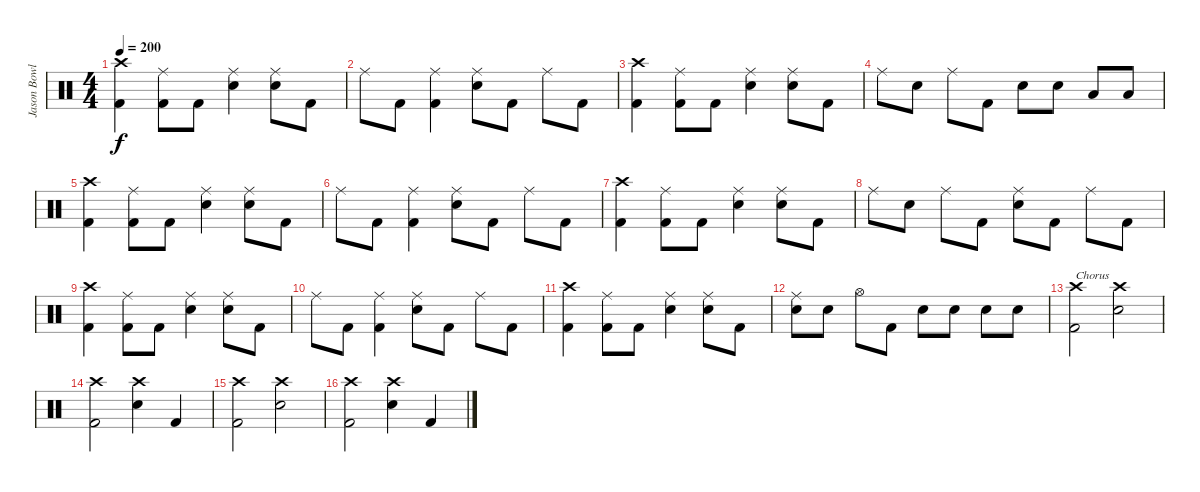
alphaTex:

\track ("Jason Bowld" "Jason Bowl") {instrument percussion}
\staff {score}
\articulation defaults
\ts (4 4)
\tempo 200
\clef neutral
\ks c
("Crash high (hit)" "Kick (hit) 2").4{dy f} ("Ride (middle)" "Kick (hit) 2").8 "Kick (hit) 2".8 ("Ride (middle)" "Snare (hit) 2").4 ("Ride (middle)" "Snare (hit) 2").8 "Kick (hit) 2".8 |
"Ride (middle)".8 "Kick (hit) 2".8 ("Ride (middle)" "Kick (hit) 2").4 ("Ride (middle)" "Snare (hit) 2").8 "Kick (hit) 2".8 "Ride (middle)".8 "Kick (hit) 2".8 |
("Crash high (hit)" "Kick (hit) 2").4 ("Ride (middle)" "Kick (hit) 2").8 "Kick (hit) 2".8 ("Ride (middle)" "Snare (hit) 2").4 ("Ride (middle)" "Snare (hit) 2").8 "Kick (hit) 2".8 |
"Ride (middle)".8 "Snare (hit) 2".8 "Ride (middle)".8 "Kick (hit) 2".8 "Snare (hit) 2".8 "Snare (hit) 2".8 "Low Tom (hit)".8 "Low Tom (hit)".8 |
("Crash high (hit)" "Kick (hit) 2").4 ("Ride (middle)" "Kick (hit) 2").8 "Kick (hit) 2".8 ("Ride (middle)" "Snare (hit) 2").4 ("Ride (middle)" "Snare (hit) 2").8 "Kick (hit) 2".8 |
"Ride (middle)".8 "Kick (hit) 2".8 ("Ride (middle)" "Kick (hit) 2").4 ("Ride (middle)" "Snare (hit) 2").8 "Kick (hit) 2".8 "Ride (middle)".8 "Kick (hit) 2".8 |
("Crash high (hit)" "Kick (hit) 2").4 ("Ride (middle)" "Kick (hit) 2").8 "Kick (hit) 2".8 ("Ride (middle)" "Snare (hit) 2").4 ("Ride (middle)" "Snare (hit) 2").8 "Kick (hit) 2".8 |
"Ride (middle)".8 "Snare (hit) 2".8 "Ride (middle)".8 "Kick (hit) 2".8 ("Ride (middle)" "Snare (hit) 2").8 "Kick (hit) 2".8 "Ride (middle)".8 "Kick (hit) 2".8 |
("Crash high (hit)" "Kick (hit) 2").4 ("Ride (middle)" "Kick (hit) 2").8 "Kick (hit) 2".8 ("Ride (middle)" "Snare (hit) 2").4 ("Ride (middle)" "Snare (hit) 2").8 "Kick (hit) 2".8 |
"Ride (middle)".8 "Kick (hit) 2".8 ("Ride (middle)" "Kick (hit) 2").4 ("Ride (middle)" "Snare (hit) 2").8 "Kick (hit) 2".8 "Ride (middle)".8 "Kick (hit) 2".8 |
("Crash high (hit)" "Kick (hit) 2").4 ("Ride (middle)" "Kick (hit) 2").8 "Kick (hit) 2".8 ("Ride (middle)" "Snare (hit) 2").4 ("Ride (middle)" "Snare (hit) 2").8 "Kick (hit) 2".8 |
("Ride (middle)" "Snare (hit) 2").8 "Snare (hit) 2".8 "Hi-Hat (open)".8 "Kick (hit) 2".8 "Snare (hit) 2".8 "Snare (hit) 2".8 "Snare (hit) 2".8 "Snare (hit) 2".8 |
("Crash high (hit)" "Kick (hit) 2").2{txt "Chorus"} ("Crash high (hit)" "Snare (hit) 2").2 |
("Crash high (hit)" "Kick (hit) 2").2 ("Crash high (hit)" "Snare (hit) 2").4 "Kick (hit) 2".4 |
("Crash high (hit)" "Kick (hit) 2").2 ("Crash high (hit)" "Snare (hit) 2").2 |
("Crash high (hit)" "Kick (hit) 2").2 ("Crash high (hit)" "Snare (hit) 2").4 "Kick (hit) 2".4
